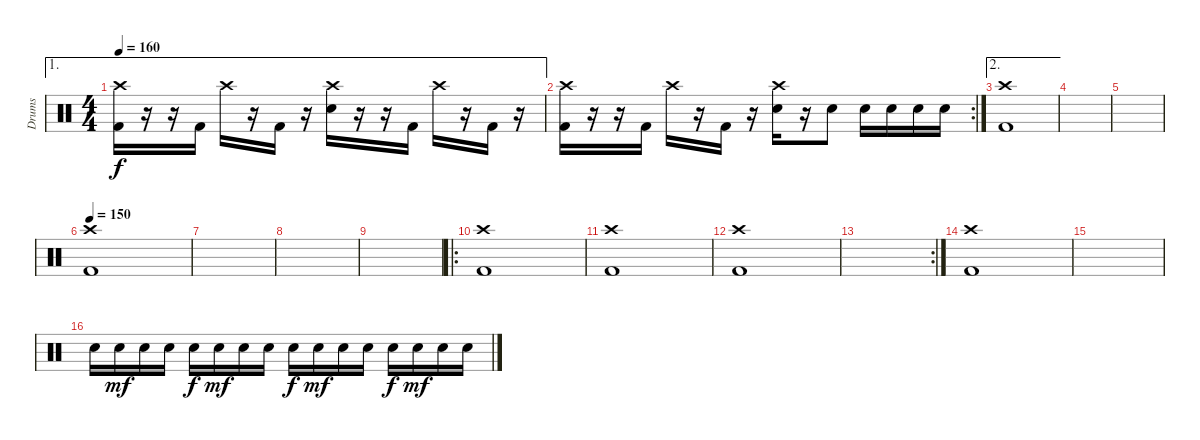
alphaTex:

\track ("Drums" "Drums") {instrument percussion}
\staff {score}
\articulation defaults
\ae 1
\ts (4 4)
\tempo 160
\clef neutral
\ks c
("Kick (hit) 2" "Crash high (hit)").16{dy f} r.16 r.16 "Kick (hit) 2".16 "Crash high (hit)".16 r.16 "Kick (hit) 2".16 r.16 ("Electric Snare (hit)" "Crash high (hit)").16 r.16 r.16 "Kick (hit) 2".16 "Crash high (hit)".16 r.16 "Kick (hit) 2".16 r.16 |
\rc 2
("Kick (hit) 2" "Crash high (hit)").16 r.16 r.16 "Kick (hit) 2".16 "Crash high (hit)".16 r.16 "Kick (hit) 2".16 r.16 ("Electric Snare (hit)" "Crash high (hit)").16 r.16 "Electric Snare (hit)".8 "Electric Snare (hit)".16 "Electric Snare (hit)".16 "Electric Snare (hit)".16 "Electric Snare (hit)".16 |
\ae 2
("Kick (hit) 2" "Crash high (hit)").1 |
|
|
\tempo 150
("Kick (hit) 2" "Crash high (hit)").1 |
|
|
|
\ro
("Kick (hit) 2" "Crash high (hit)").1 |
("Kick (hit) 2" "Crash high (hit)").1 |
("Kick (hit) 2" "Crash high (hit)").1 |
\rc 2
|
("Kick (hit) 2" "Crash high (hit)").1 |
|
"Electric Snare (hit)".16{volume 5} "Electric Snare (hit)".16{dy mf volume 13} "Electric Snare (hit)".16 "Electric Snare (hit)".16 "Electric Snare (hit)".16{dy f} "Electric Snare (hit)".16{dy mf} "Electric Snare (hit)".16 "Electric Snare (hit)".16 "Electric Snare (hit)".16{dy f} "Electric Snare (hit)".16{dy mf} "Electric Snare (hit)".16 "Electric Snare (hit)".16 "Electric Snare (hit)".16{dy f} "Electric Snare (hit)".16{dy mf} "Electric Snare (hit)".16 "Electric Snare (hit)".16
